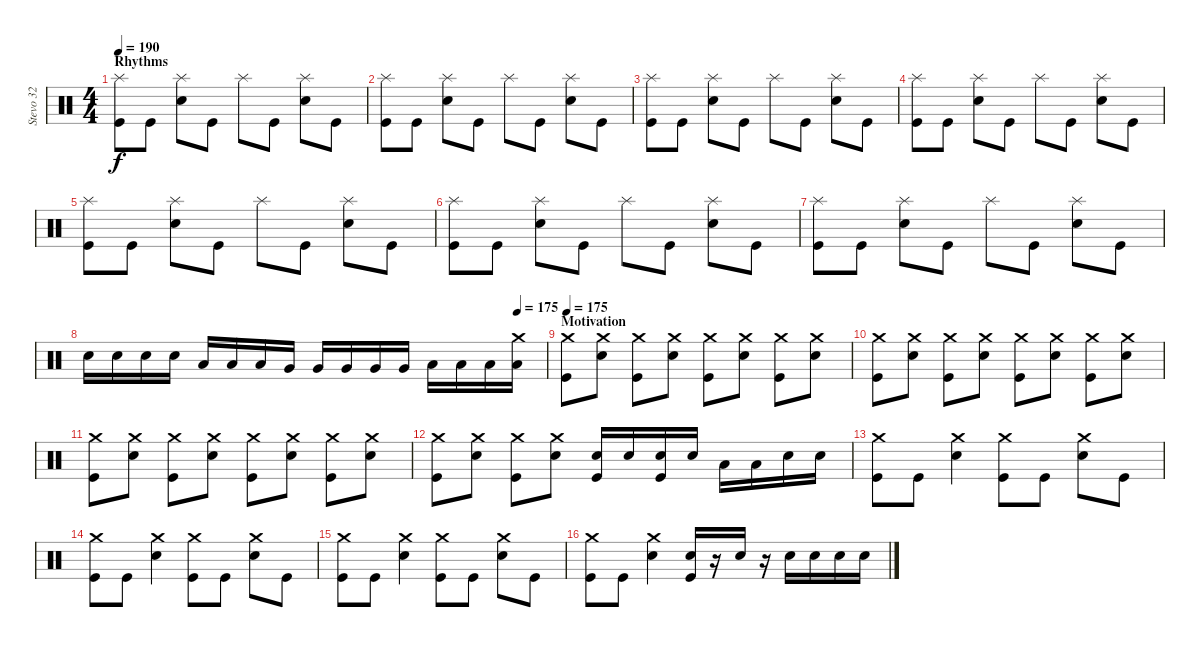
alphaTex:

\track ("Stevo 32" "Stevo 32") {instrument percussion}
\staff {score}
\articulation defaults
\ts (4 4)
\section ("" "Rhythms")
\tempo 190
\clef neutral
\ks c
("Splash (hit)" "Kick (hit)").8{dy f} "Kick (hit)".8 ("Splash (hit)" "Snare (hit) 2").8 "Kick (hit)".8 "Splash (hit)".8 "Kick (hit)".8 ("Splash (hit)" "Snare (hit) 2").8 "Kick (hit)".8 |
("Splash (hit)" "Kick (hit)").8 "Kick (hit)".8 ("Splash (hit)" "Snare (hit) 2").8 "Kick (hit)".8 "Splash (hit)".8 "Kick (hit)".8 ("Splash (hit)" "Snare (hit) 2").8 "Kick (hit)".8 |
("Splash (hit)" "Kick (hit)").8 "Kick (hit)".8 ("Splash (hit)" "Snare (hit) 2").8 "Kick (hit)".8 "Splash (hit)".8 "Kick (hit)".8 ("Splash (hit)" "Snare (hit) 2").8 "Kick (hit)".8 |
("Splash (hit)" "Kick (hit)").8 "Kick (hit)".8 ("Splash (hit)" "Snare (hit) 2").8 "Kick (hit)".8 "Splash (hit)".8 "Kick (hit)".8 ("Splash (hit)" "Snare (hit) 2").8 "Kick (hit)".8 |
("Splash (hit)" "Kick (hit)").8 "Kick (hit)".8 ("Splash (hit)" "Snare (hit) 2").8 "Kick (hit)".8 "Splash (hit)".8 "Kick (hit)".8 ("Splash (hit)" "Snare (hit) 2").8 "Kick (hit)".8 |
("Splash (hit)" "Kick (hit)").8 "Kick (hit)".8 ("Splash (hit)" "Snare (hit) 2").8 "Kick (hit)".8 "Splash (hit)".8 "Kick (hit)".8 ("Splash (hit)" "Snare (hit) 2").8 "Kick (hit)".8 |
("Splash (hit)" "Kick (hit)").8 "Kick (hit)".8 ("Splash (hit)" "Snare (hit) 2").8 "Kick (hit)".8 "Splash (hit)".8 "Kick (hit)".8 ("Splash (hit)" "Snare (hit) 2").8 "Kick (hit)".8 |
\tempo (175 0.9375)
"Electric Snare (hit)".16 "Electric Snare (hit)".16 "Electric Snare (hit)".16 "Electric Snare (hit)".16 "Low Tom (hit)".16 "Low Tom (hit)".16 "Low Tom (hit)".16 "Very Low Tom (hit)".16 "Very Low Tom (hit)".16 "Very Low Tom (hit)".16 "Very Low Tom (hit)".16 "Very Low Tom (hit)".16 "Low Floor Tom (hit)".16 "Low Floor Tom (hit)".16 "Low Floor Tom (hit)".16 ("Crash medium (hit)" "Low Floor Tom (hit)").16 |
\section ("" "Motivation")
\tempo 175
("Crash medium (hit)" "Kick (hit)").8 ("Crash medium (hit)" "Snare (hit) 2").8 ("Crash medium (hit)" "Kick (hit)").8 ("Crash medium (hit)" "Snare (hit) 2").8 ("Crash medium (hit)" "Kick (hit)").8 ("Crash medium (hit)" "Snare (hit) 2").8 ("Crash medium (hit)" "Kick (hit)").8 ("Crash medium (hit)" "Snare (hit) 2").8 |
("Crash medium (hit)" "Kick (hit)").8 ("Crash medium (hit)" "Snare (hit) 2").8 ("Crash medium (hit)" "Kick (hit)").8 ("Crash medium (hit)" "Snare (hit) 2").8 ("Crash medium (hit)" "Kick (hit)").8 ("Crash medium (hit)" "Snare (hit) 2").8 ("Crash medium (hit)" "Kick (hit)").8 ("Crash medium (hit)" "Snare (hit) 2").8 |
("Crash medium (hit)" "Kick (hit)").8 ("Crash medium (hit)" "Snare (hit) 2").8 ("Crash medium (hit)" "Kick (hit)").8 ("Crash medium (hit)" "Snare (hit) 2").8 ("Crash medium (hit)" "Kick (hit)").8 ("Crash medium (hit)" "Snare (hit) 2").8 ("Crash medium (hit)" "Kick (hit)").8 ("Crash medium (hit)" "Snare (hit) 2").8 |
("Crash medium (hit)" "Kick (hit)").8 ("Crash medium (hit)" "Snare (hit) 2").8 ("Crash medium (hit)" "Kick (hit)").8 ("Crash medium (hit)" "Snare (hit) 2").8 ("Snare (hit) 2" "Kick (hit)").16 "Snare (hit) 2".16 ("Snare (hit) 2" "Kick (hit)").16 "Snare (hit) 2".16 "Low Tom (hit)".16 "Low Tom (hit)".16 "Electric Snare (hit)".16 "Electric Snare (hit)".16 |
("Crash medium (hit)" "Kick (hit)").8 "Kick (hit)".8 ("Crash medium (hit)" "Snare (hit) 2").4 ("Crash medium (hit)" "Kick (hit)").8 "Kick (hit)".8 ("Crash medium (hit)" "Snare (hit) 2").8 "Kick (hit)".8 |
("Crash medium (hit)" "Kick (hit)").8 "Kick (hit)".8 ("Crash medium (hit)" "Snare (hit) 2").4 ("Crash medium (hit)" "Kick (hit)").8 "Kick (hit)".8 ("Crash medium (hit)" "Snare (hit) 2").8 "Kick (hit)".8 |
("Crash medium (hit)" "Kick (hit)").8 "Kick (hit)".8 ("Crash medium (hit)" "Snare (hit) 2").4 ("Crash medium (hit)" "Kick (hit)").8 "Kick (hit)".8 ("Crash medium (hit)" "Snare (hit) 2").8 "Kick (hit)".8 |
("Crash medium (hit)" "Kick (hit)").8 "Kick (hit)".8 ("Crash medium (hit)" "Snare (hit) 2").4 ("Snare (hit) 2" "Kick (hit)").16 r.16 "Snare (hit) 2".16 r.16 "Snare (hit) 2".16 "Snare (hit) 2".16 "Snare (hit) 2".16 "Snare (hit) 2".16
